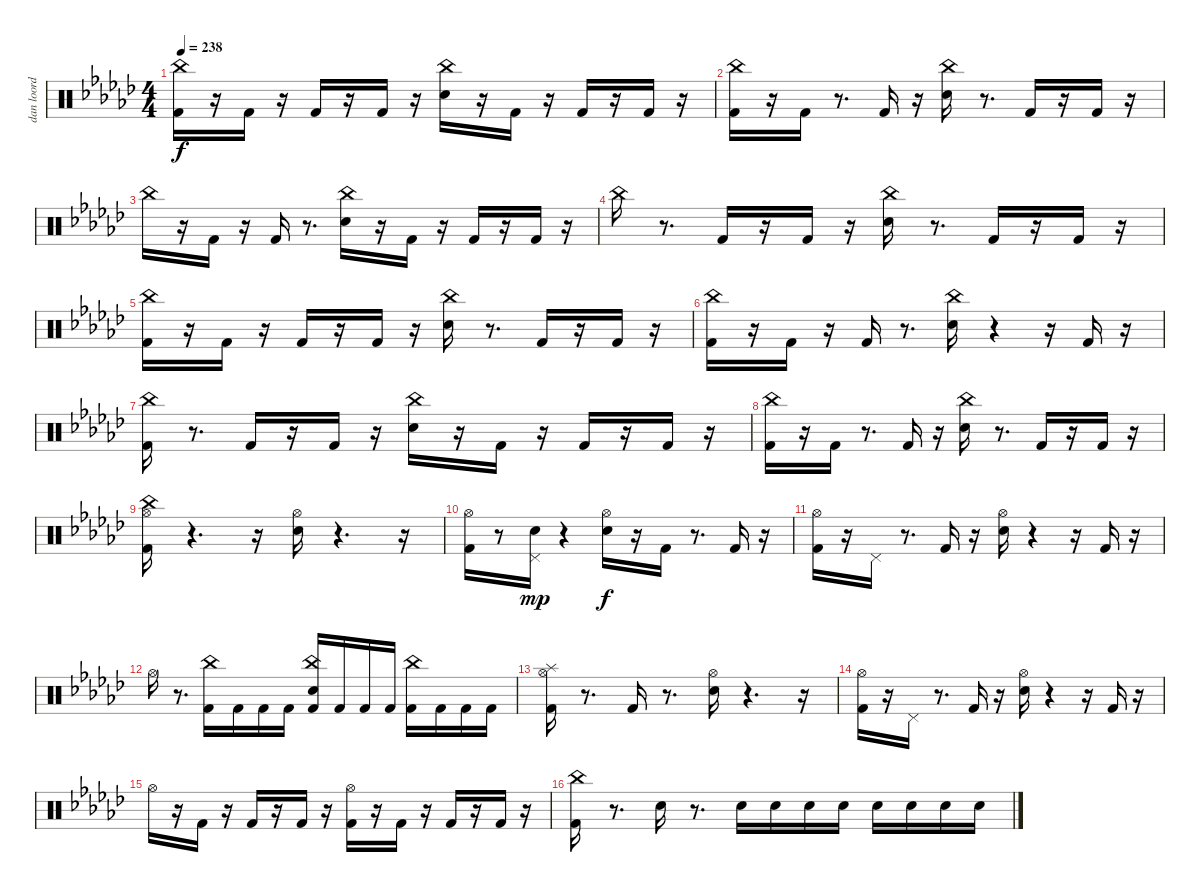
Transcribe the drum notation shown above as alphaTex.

\track ("dan loord foord" "dan loord ") {instrument percussion}
\staff {score}
\articulation defaults
\ts (4 4)
\tempo 238
\clef neutral
\ks gb
("Kick (hit) 2" "China (hit)").16{dy f} r.16 "Kick (hit) 2".16 r.16 "Kick (hit) 2".16 r.16 "Kick (hit) 2".16 r.16 ("Snare (hit) 2" "China (hit)").16 r.16 "Kick (hit) 2".16 r.16 "Kick (hit) 2".16 r.16 "Kick (hit) 2".16 r.16 |
("Kick (hit) 2" "China (hit)").16 r.16 "Kick (hit) 2".16 r.8{d} "Kick (hit) 2".16 r.16 ("Snare (hit) 2" "China (hit)").16 r.8{d} "Kick (hit) 2".16 r.16 "Kick (hit) 2".16 r.16 |
"China (hit)".16 r.16 "Kick (hit) 2".16 r.16 "Kick (hit) 2".16 r.8{d} ("Snare (hit) 2" "China (hit)").16 r.16 "Kick (hit) 2".16 r.16 "Kick (hit) 2".16 r.16 "Kick (hit) 2".16 r.16 |
"China (hit)".16 r.8{d} "Kick (hit) 2".16 r.16 "Kick (hit) 2".16 r.16 ("Snare (hit) 2" "China (hit)").16 r.8{d} "Kick (hit) 2".16 r.16 "Kick (hit) 2".16 r.16 |
("Kick (hit) 2" "China (hit)").16 r.16 "Kick (hit) 2".16 r.16 "Kick (hit) 2".16 r.16 "Kick (hit) 2".16 r.16 ("Snare (hit) 2" "China (hit)").16 r.8{d} "Kick (hit) 2".16 r.16 "Kick (hit) 2".16 r.16 |
("Kick (hit) 2" "China (hit)").16 r.16 "Kick (hit) 2".16 r.16 "Kick (hit) 2".16 r.8{d} ("Snare (hit) 2" "China (hit)").16 r.4 r.16 "Kick (hit) 2".16 r.16 |
("Kick (hit) 2" "China (hit)").16 r.8{d} "Kick (hit) 2".16 r.16 "Kick (hit) 2".16 r.16 ("Snare (hit) 2" "China (hit)").16 r.16 "Kick (hit) 2".16 r.16 "Kick (hit) 2".16 r.16 "Kick (hit) 2".16 r.16 |
("Kick (hit) 2" "China (hit)").16 r.16 "Kick (hit) 2".16 r.8{d} "Kick (hit) 2".16 r.16 ("Snare (hit) 2" "China (hit)").16 r.8{d} "Kick (hit) 2".16 r.16 "Kick (hit) 2".16 r.16 |
("Kick (hit) 2" "Hi-Hat (open)" "China (hit)").16 r.4{d} r.16 ("Snare (hit) 2" "Hi-Hat (open)").16 r.4{d} r.16 |
("Kick (hit) 2" "Hi-Hat (open)").16 r.8 ("Snare (hit) 2" "Pedal Hi-Hat (hit)").16{dy mp} r.4 ("Snare (hit) 2" "Hi-Hat (open)").16{dy f} r.16 "Kick (hit) 2".16 r.8{d} "Kick (hit) 2".16 r.16 |
("Kick (hit) 2" "Hi-Hat (open)").16 r.16 "Pedal Hi-Hat (hit)".16 r.8{d} "Kick (hit) 2".16 r.16 ("Snare (hit) 2" "Hi-Hat (open)").16 r.4 r.16 "Kick (hit) 2".16 r.16 |
"Hi-Hat (open)".16 r.8{d} ("Kick (hit) 2" "China (hit)").16 "Kick (hit) 2".16 "Kick (hit) 2".16 "Kick (hit) 2".16 ("Kick (hit) 2" "Snare (hit) 2" "China (hit)").16 "Kick (hit) 2".16 "Kick (hit) 2".16 "Kick (hit) 2".16 ("Kick (hit) 2" "China (hit)").16 "Kick (hit) 2".16 "Kick (hit) 2".16 "Kick (hit) 2".16 |
("Kick (hit) 2" "Hi-Hat (open)" "Splash (hit)").16 r.8{d} "Kick (hit) 2".16 r.8{d} ("Snare (hit) 2" "Hi-Hat (open)").16 r.4{d} r.16 |
("Kick (hit) 2" "Hi-Hat (open)").16 r.16 "Pedal Hi-Hat (hit)".16 r.8{d} "Kick (hit) 2".16 r.16 ("Snare (hit) 2" "Hi-Hat (open)").16 r.4 r.16 "Kick (hit) 2".16 r.16 |
"Hi-Hat (open)".16 r.16 "Kick (hit) 2".16 r.16 "Kick (hit) 2".16 r.16 "Kick (hit) 2".16 r.16 ("Kick (hit) 2" "Hi-Hat (open)").16 r.16 "Kick (hit) 2".16 r.16 "Kick (hit) 2".16 r.16 "Kick (hit) 2".16 r.16 |
("Kick (hit) 2" "China (hit)").16 r.8{d} "Snare (hit) 2".16 r.8{d} "Snare (hit) 2".16 "Snare (hit) 2".16 "Snare (hit) 2".16 "Snare (hit) 2".16 "Snare (hit) 2".16 "Snare (hit) 2".16 "Snare (hit) 2".16 "Snare (hit) 2".16
